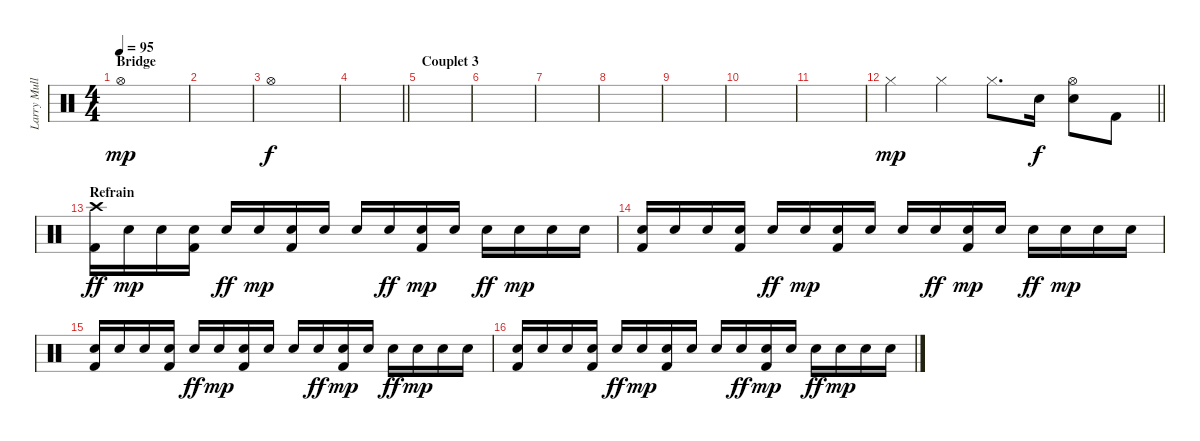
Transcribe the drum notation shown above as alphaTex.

\track ("Larry Mullen Jr" "Larry Mull") {instrument percussion}
\staff {score}
\articulation defaults
\ts (4 4)
\section ("" "Bridge")
\tempo 95
\clef neutral
\ks c "Hi-Hat (open)".1{dy mp}
|
|
"Hi-Hat (open)".1{dy f} |
\barLineRight lightlight
|
\section ("" "Couplet 3")
|
|
|
|
|
|
|
\barLineRight lightlight "Hi-Hat (closed)".4{dy mp} "Hi-Hat (closed)".4 "Hi-Hat (closed)".8{d} "Snare (hit) 2".16{dy f}
("Hi-Hat (open)" "Snare (hit) 2").8 "Kick (hit) 2".8 |
\section ("" "Refrain")
("Crash high (hit)" "Kick (hit) 2").16{dy ff} "Snare (hit) 2".16{dy mp} "Snare (hit) 2".16 ("Snare (hit) 2" "Kick (hit) 2").16 "Snare (hit) 2".16{dy ff} "Snare (hit) 2".16{dy mp} ("Snare (hit) 2" "Kick (hit) 2").16 "Snare (hit) 2".16 "Snare (hit) 2".16 "Snare (hit) 2".16{dy ff} ("Snare (hit) 2" "Kick (hit) 2").16{dy mp} "Snare (hit) 2".16 "Snare (hit) 2".16{dy ff} "Snare (hit) 2".16{dy mp} "Snare (hit) 2".16 "Snare (hit) 2".16 |
("Snare (hit) 2" "Kick (hit) 2").16 "Snare (hit) 2".16 "Snare (hit) 2".16 ("Snare (hit) 2" "Kick (hit) 2").16 "Snare (hit) 2".16{dy ff} "Snare (hit) 2".16{dy mp} ("Snare (hit) 2" "Kick (hit) 2").16 "Snare (hit) 2".16 "Snare (hit) 2".16 "Snare (hit) 2".16{dy ff} ("Snare (hit) 2" "Kick (hit) 2").16{dy mp} "Snare (hit) 2".16 "Snare (hit) 2".16{dy ff} "Snare (hit) 2".16{dy mp} "Snare (hit) 2".16 "Snare (hit) 2".16 |
("Snare (hit) 2" "Kick (hit) 2").16 "Snare (hit) 2".16 "Snare (hit) 2".16 ("Snare (hit) 2" "Kick (hit) 2").16 "Snare (hit) 2".16{dy ff} "Snare (hit) 2".16{dy mp} ("Snare (hit) 2" "Kick (hit) 2").16 "Snare (hit) 2".16 "Snare (hit) 2".16 "Snare (hit) 2".16{dy ff} ("Snare (hit) 2" "Kick (hit) 2").16{dy mp} "Snare (hit) 2".16 "Snare (hit) 2".16{dy ff} "Snare (hit) 2".16{dy mp} "Snare (hit) 2".16 "Snare (hit) 2".16 |
("Snare (hit) 2" "Kick (hit) 2").16 "Snare (hit) 2".16 "Snare (hit) 2".16 ("Snare (hit) 2" "Kick (hit) 2").16 "Snare (hit) 2".16{dy ff} "Snare (hit) 2".16{dy mp} ("Snare (hit) 2" "Kick (hit) 2").16 "Snare (hit) 2".16 "Snare (hit) 2".16 "Snare (hit) 2".16{dy ff} ("Snare (hit) 2" "Kick (hit) 2").16{dy mp} "Snare (hit) 2".16 "Snare (hit) 2".16{dy ff} "Snare (hit) 2".16{dy mp} "Snare (hit) 2".16 "Snare (hit) 2".16
